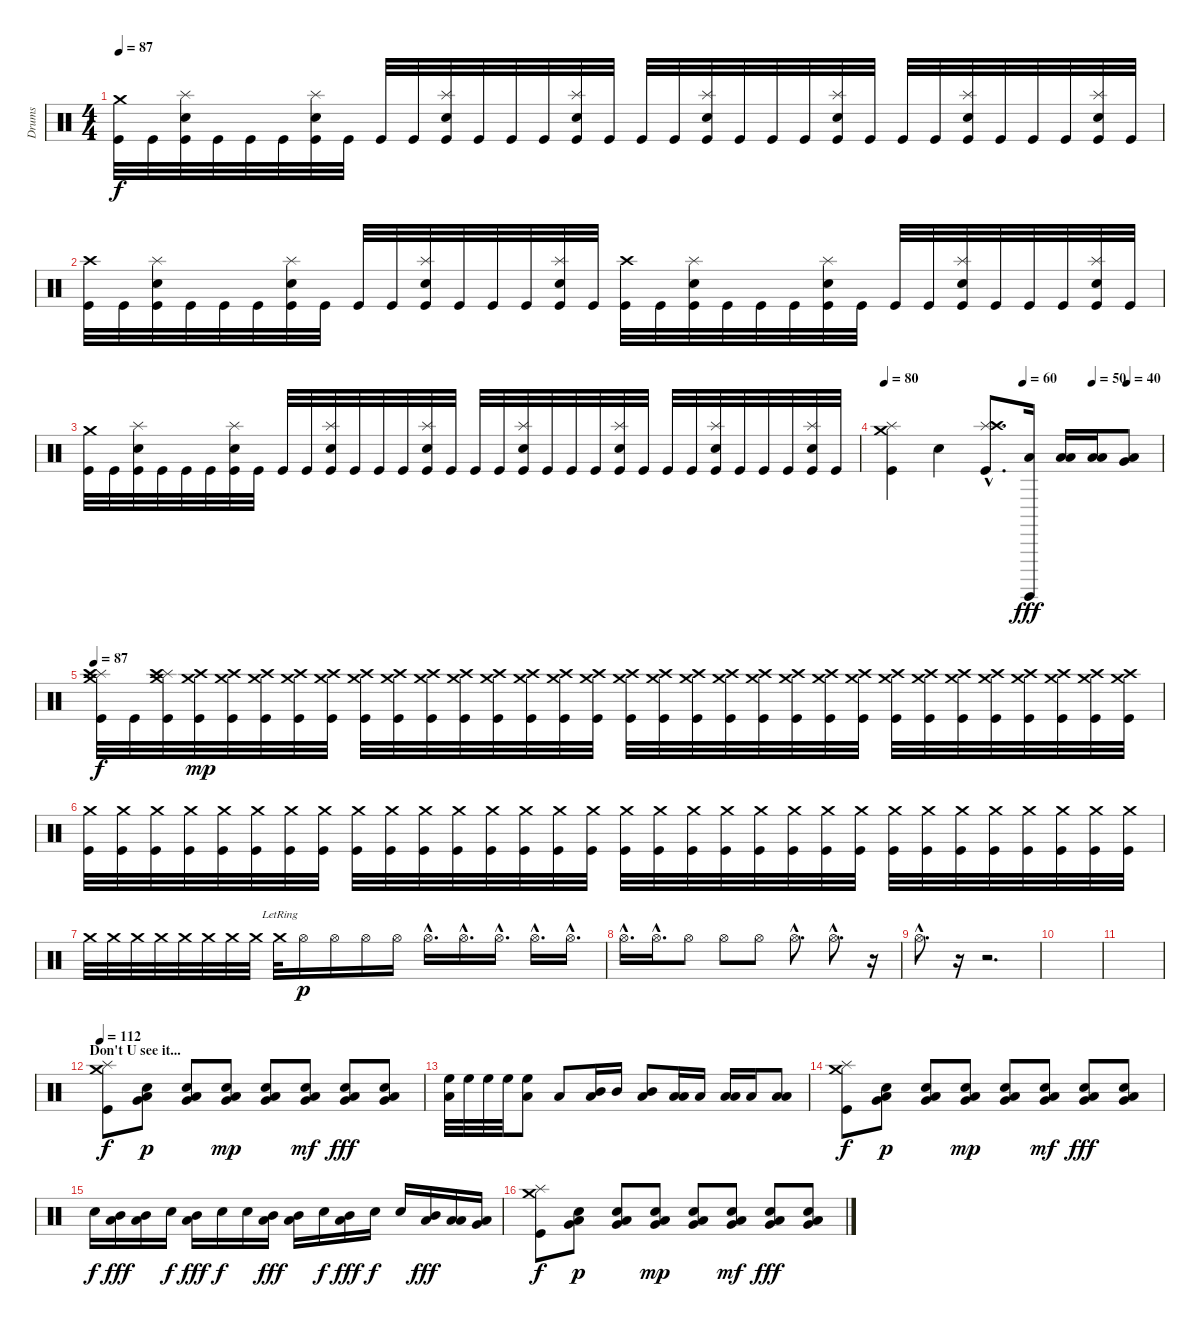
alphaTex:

\track ("Drums" "Drums") {instrument percussion}
\staff {score}
\articulation defaults
\ts (4 4)
\tempo 87
\clef neutral
\ks c
("Crash medium (hit)" "Kick (hit)").32{dy f} "Kick (hit)".32 ("Splash (hit)" "Electric Snare (hit)" "Kick (hit)").32 "Kick (hit)".32 "Kick (hit)".32 "Kick (hit)".32 ("Splash (hit)" "Electric Snare (hit)" "Kick (hit)").32 "Kick (hit)".32 "Kick (hit)".32 "Kick (hit)".32 ("Splash (hit)" "Electric Snare (hit)" "Kick (hit)").32 "Kick (hit)".32 "Kick (hit)".32 "Kick (hit)".32 ("Splash (hit)" "Electric Snare (hit)" "Kick (hit)").32 "Kick (hit)".32 "Kick (hit)".32 "Kick (hit)".32 ("Splash (hit)" "Electric Snare (hit)" "Kick (hit)").32 "Kick (hit)".32 "Kick (hit)".32 "Kick (hit)".32 ("Splash (hit)" "Electric Snare (hit)" "Kick (hit)").32 "Kick (hit)".32 "Kick (hit)".32 "Kick (hit)".32 ("Splash (hit)" "Electric Snare (hit)" "Kick (hit)").32 "Kick (hit)".32 "Kick (hit)".32 "Kick (hit)".32 ("Splash (hit)" "Electric Snare (hit)" "Kick (hit)").32 "Kick (hit)".32 |
("Crash high (hit)" "Kick (hit)").32 "Kick (hit)".32 ("Splash (hit)" "Electric Snare (hit)" "Kick (hit)").32 "Kick (hit)".32 "Kick (hit)".32 "Kick (hit)".32 ("Splash (hit)" "Electric Snare (hit)" "Kick (hit)").32 "Kick (hit)".32 "Kick (hit)".32 "Kick (hit)".32 ("Splash (hit)" "Electric Snare (hit)" "Kick (hit)").32 "Kick (hit)".32 "Kick (hit)".32 "Kick (hit)".32 ("Splash (hit)" "Electric Snare (hit)" "Kick (hit)").32 "Kick (hit)".32 ("Crash high (hit)" "Kick (hit)").32 "Kick (hit)".32 ("Splash (hit)" "Electric Snare (hit)" "Kick (hit)").32 "Kick (hit)".32 "Kick (hit)".32 "Kick (hit)".32 ("Splash (hit)" "Electric Snare (hit)" "Kick (hit)").32 "Kick (hit)".32 "Kick (hit)".32 "Kick (hit)".32 ("Splash (hit)" "Electric Snare (hit)" "Kick (hit)").32 "Kick (hit)".32 "Kick (hit)".32 "Kick (hit)".32 ("Splash (hit)" "Electric Snare (hit)" "Kick (hit)").32 "Kick (hit)".32 |
("Crash medium (hit)" "Kick (hit)").32 "Kick (hit)".32 ("Splash (hit)" "Electric Snare (hit)" "Kick (hit)").32 "Kick (hit)".32 "Kick (hit)".32 "Kick (hit)".32 ("Splash (hit)" "Electric Snare (hit)" "Kick (hit)").32 "Kick (hit)".32 "Kick (hit)".32 "Kick (hit)".32 ("Splash (hit)" "Electric Snare (hit)" "Kick (hit)").32 "Kick (hit)".32 "Kick (hit)".32 "Kick (hit)".32 ("Splash (hit)" "Electric Snare (hit)" "Kick (hit)").32 "Kick (hit)".32 "Kick (hit)".32 "Kick (hit)".32 ("Splash (hit)" "Electric Snare (hit)" "Kick (hit)").32 "Kick (hit)".32 "Kick (hit)".32 "Kick (hit)".32 ("Splash (hit)" "Electric Snare (hit)" "Kick (hit)").32 "Kick (hit)".32 "Kick (hit)".32 "Kick (hit)".32 ("Splash (hit)" "Electric Snare (hit)" "Kick (hit)").32 "Kick (hit)".32 "Kick (hit)".32 "Kick (hit)".32 ("Splash (hit)" "Electric Snare (hit)" "Kick (hit)").32 "Kick (hit)".32 |
\tempo 80
\tempo (60 0.5)
\tempo (50 0.75)
\tempo (40 0.875)
("Crash medium (hit)" "Splash (hit)" "Kick (hit)").4 "Electric Snare (hit)".4 ("Splash (hit)"{hac} "Crash high (hit)"{hac} "Kick (hit)"{hac}).8{d} ("Surdo (hit)" "Low Floor Tom (hit)").16{dy fff} ("Low Floor Tom (hit)" "Low Tom (hit)").16 ("Low Floor Tom (hit)" "Low Tom (hit)").16 ("Low Floor Tom (hit)" "Very Low Tom (hit)").8 |
\tempo 87
("Crash medium (hit)" "Splash (hit)" "Crash high (hit)" "Kick (hit)").32{dy f} "Kick (hit)".32 ("Crash medium (hit)" "Splash (hit)" "Crash high (hit)" "Kick (hit)").32 ("Crash medium (hit)" "Crash high (hit)" "Kick (hit)").32{dy mp} ("Crash medium (hit)" "Crash high (hit)" "Kick (hit)").32 ("Crash medium (hit)" "Crash high (hit)" "Kick (hit)").32 ("Crash medium (hit)" "Crash high (hit)" "Kick (hit)").32 ("Crash medium (hit)" "Crash high (hit)" "Kick (hit)").32 ("Crash medium (hit)" "Crash high (hit)" "Kick (hit)").32 ("Crash medium (hit)" "Crash high (hit)" "Kick (hit)").32 ("Crash medium (hit)" "Crash high (hit)" "Kick (hit)").32 ("Crash medium (hit)" "Crash high (hit)" "Kick (hit)").32 ("Crash medium (hit)" "Crash high (hit)" "Kick (hit)").32 ("Crash medium (hit)" "Crash high (hit)" "Kick (hit)").32 ("Crash medium (hit)" "Crash high (hit)" "Kick (hit)").32 ("Crash medium (hit)" "Crash high (hit)" "Kick (hit)").32 ("Crash medium (hit)" "Crash high (hit)" "Kick (hit)").32 ("Crash medium (hit)" "Crash high (hit)" "Kick (hit)").32 ("Crash medium (hit)" "Crash high (hit)" "Kick (hit)").32 ("Crash medium (hit)" "Crash high (hit)" "Kick (hit)").32 ("Crash medium (hit)" "Crash high (hit)" "Kick (hit)").32 ("Crash medium (hit)" "Crash high (hit)" "Kick (hit)").32 ("Crash medium (hit)" "Crash high (hit)" "Kick (hit)").32 ("Crash medium (hit)" "Crash high (hit)" "Kick (hit)").32 ("Crash medium (hit)" "Crash high (hit)" "Kick (hit)").32 ("Crash medium (hit)" "Crash high (hit)" "Kick (hit)").32 ("Crash medium (hit)" "Crash high (hit)" "Kick (hit)").32 ("Crash medium (hit)" "Crash high (hit)" "Kick (hit)").32 ("Crash medium (hit)" "Crash high (hit)" "Kick (hit)").32 ("Crash medium (hit)" "Crash high (hit)" "Kick (hit)").32 ("Crash medium (hit)" "Crash high (hit)" "Kick (hit)").32 ("Crash medium (hit)" "Crash high (hit)" "Kick (hit)").32 |
("Crash medium (hit)" "Kick (hit)").32 ("Crash medium (hit)" "Kick (hit)").32 ("Crash medium (hit)" "Kick (hit)").32 ("Crash medium (hit)" "Kick (hit)").32 ("Crash medium (hit)" "Kick (hit)").32 ("Crash medium (hit)" "Kick (hit)").32 ("Crash medium (hit)" "Kick (hit)").32 ("Crash medium (hit)" "Kick (hit)").32 ("Crash medium (hit)" "Kick (hit)").32 ("Crash medium (hit)" "Kick (hit)").32 ("Crash medium (hit)" "Kick (hit)").32 ("Crash medium (hit)" "Kick (hit)").32 ("Crash medium (hit)" "Kick (hit)").32 ("Crash medium (hit)" "Kick (hit)").32 ("Crash medium (hit)" "Kick (hit)").32 ("Crash medium (hit)" "Kick (hit)").32 ("Crash medium (hit)" "Kick (hit)").32 ("Crash medium (hit)" "Kick (hit)").32 ("Crash medium (hit)" "Kick (hit)").32 ("Crash medium (hit)" "Kick (hit)").32 ("Crash medium (hit)" "Kick (hit)").32 ("Crash medium (hit)" "Kick (hit)").32 ("Crash medium (hit)" "Kick (hit)").32 ("Crash medium (hit)" "Kick (hit)").32 ("Crash medium (hit)" "Kick (hit)").32 ("Crash medium (hit)" "Kick (hit)").32 ("Crash medium (hit)" "Kick (hit)").32 ("Crash medium (hit)" "Kick (hit)").32 ("Crash medium (hit)" "Kick (hit)").32 ("Crash medium (hit)" "Kick (hit)").32 ("Crash medium (hit)" "Kick (hit)").32 ("Crash medium (hit)" "Kick (hit)").32 |
"Crash medium (hit)".32 "Crash medium (hit)".32 "Crash medium (hit)".32 "Crash medium (hit)".32 "Crash medium (hit)".32 "Crash medium (hit)".32 "Crash medium (hit)".32 "Crash medium (hit)".32 "Crash medium (hit)"{lr}.32 "Hi-Hat (open)".16{dy p} "Hi-Hat (open)".16 "Hi-Hat (open)".16 "Hi-Hat (open)".16 "Hi-Hat (open)"{hac}.16{d} "Hi-Hat (open)"{hac}.16{d} "Hi-Hat (open)"{hac}.16{d} "Hi-Hat (open)"{hac}.16{d} "Hi-Hat (open)"{hac}.16{d} |
"Hi-Hat (open)"{hac}.16{d} "Hi-Hat (open)"{hac}.16{d} "Hi-Hat (open)".8 "Hi-Hat (open)".8 "Hi-Hat (open)".8 "Hi-Hat (open)"{hac}.8{d} "Hi-Hat (open)"{hac}.8{d} r.16 |
"Hi-Hat (open)"{hac}.8{d} r.16 r.2{d} |
|
|
\section ("" "Don't U see it...")
\tempo 112
("Crash medium (hit)" "Splash (hit)" "Kick (hit)").8{dy f} ("Low Floor Tom (hit)" "Very Low Tom (hit)" "Electric Snare (hit)").8{dy p} ("Low Floor Tom (hit)" "Very Low Tom (hit)" "Electric Snare (hit)").8 ("Low Floor Tom (hit)" "Very Low Tom (hit)" "Electric Snare (hit)").8{dy mp} ("Low Floor Tom (hit)" "Very Low Tom (hit)" "Electric Snare (hit)").8 ("Low Floor Tom (hit)" "Very Low Tom (hit)" "Electric Snare (hit)").8{dy mf} ("Low Floor Tom (hit)" "Very Low Tom (hit)" "Electric Snare (hit)").8{dy fff} ("Low Floor Tom (hit)" "Very Low Tom (hit)" "Electric Snare (hit)").8 |
("Low Floor Tom (hit)" "High Floor Tom (hit)").32 "High Floor Tom (hit)".32 "High Floor Tom (hit)".32 "High Floor Tom (hit)".32 ("Low Floor Tom (hit)" "High Floor Tom (hit)").8 "Low Floor Tom (hit)".8 ("Low Floor Tom (hit)" "Mid Tom (hit)").16 "Mid Tom (hit)".16 ("Low Floor Tom (hit)" "Mid Tom (hit)").8 ("Low Floor Tom (hit)" "Low Tom (hit)").16 "Low Tom (hit)".16 ("Low Floor Tom (hit)" "Low Tom (hit)").16 "Low Tom (hit)".16 ("Low Floor Tom (hit)" "Low Tom (hit)").8 |
("Crash medium (hit)" "Splash (hit)" "Kick (hit)").8{dy f} ("Low Floor Tom (hit)" "Very Low Tom (hit)" "Electric Snare (hit)").8{dy p} ("Low Floor Tom (hit)" "Very Low Tom (hit)" "Electric Snare (hit)").8 ("Low Floor Tom (hit)" "Very Low Tom (hit)" "Electric Snare (hit)").8{dy mp} ("Low Floor Tom (hit)" "Very Low Tom (hit)" "Electric Snare (hit)").8 ("Low Floor Tom (hit)" "Very Low Tom (hit)" "Electric Snare (hit)").8{dy mf} ("Low Floor Tom (hit)" "Very Low Tom (hit)" "Electric Snare (hit)").8{dy fff} ("Low Floor Tom (hit)" "Very Low Tom (hit)" "Electric Snare (hit)").8 |
"Electric Snare (hit)".16{dy f} ("Low Floor Tom (hit)" "Mid Tom (hit)").16{dy fff} ("Low Floor Tom (hit)" "Mid Tom (hit)").16 "Electric Snare (hit)".16{dy f} ("Low Floor Tom (hit)" "Mid Tom (hit)").16{dy fff} "Electric Snare (hit)".16{dy f} "Electric Snare (hit)".16 ("Low Floor Tom (hit)" "Mid Tom (hit)").16{dy fff} ("Low Floor Tom (hit)" "Mid Tom (hit)").16 "Electric Snare (hit)".16{dy f} ("Low Floor Tom (hit)" "Mid Tom (hit)").16{dy fff} "Electric Snare (hit)".16{dy f} "Electric Snare (hit)".16 ("Low Floor Tom (hit)" "Mid Tom (hit)").16{dy fff} ("Low Floor Tom (hit)" "Low Tom (hit)").16 ("Low Floor Tom (hit)" "Very Low Tom (hit)").16 |
("Crash medium (hit)" "Splash (hit)" "Kick (hit)").8{dy f} ("Low Floor Tom (hit)" "Very Low Tom (hit)" "Electric Snare (hit)").8{dy p} ("Low Floor Tom (hit)" "Very Low Tom (hit)" "Electric Snare (hit)").8 ("Low Floor Tom (hit)" "Very Low Tom (hit)" "Electric Snare (hit)").8{dy mp} ("Low Floor Tom (hit)" "Very Low Tom (hit)" "Electric Snare (hit)").8 ("Low Floor Tom (hit)" "Very Low Tom (hit)" "Electric Snare (hit)").8{dy mf} ("Low Floor Tom (hit)" "Very Low Tom (hit)" "Electric Snare (hit)").8{dy fff} ("Low Floor Tom (hit)" "Very Low Tom (hit)" "Electric Snare (hit)").8
